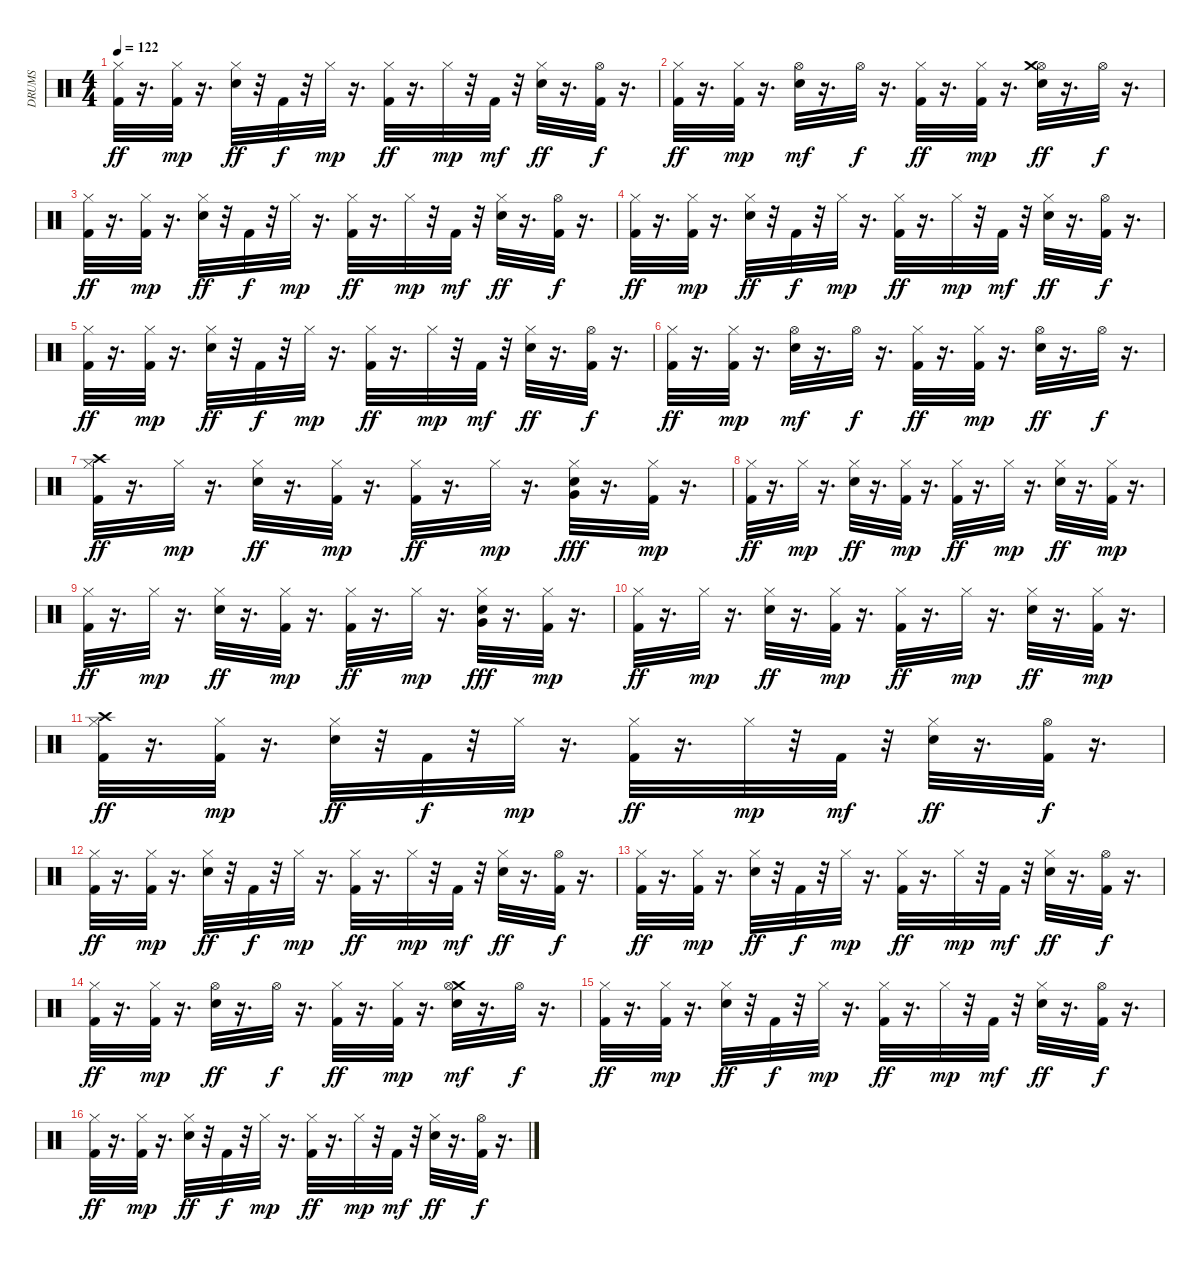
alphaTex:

\track ("DRUMS" "DRUMS") {instrument percussion}
\staff {score}
\articulation defaults
\ts (4 4)
\tempo 122
\clef neutral
\ks c
("Kick (hit) 2" "Hi-Hat (closed)").32{dy ff} r.16{d} ("Hi-Hat (closed)" "Kick (hit) 2").32{dy mp} r.16{d} ("Hi-Hat (closed)" "Snare (hit) 2").32{dy ff} r.32 "Kick (hit) 2".32{dy f} r.32 "Hi-Hat (closed)".32{dy mp} r.16{d} ("Kick (hit) 2" "Hi-Hat (closed)").32{dy ff} r.16{d} "Hi-Hat (closed)".32{dy mp} r.32 "Kick (hit) 2".32{dy mf} r.32 ("Snare (hit) 2" "Hi-Hat (closed)").32{dy ff} r.16{d} ("Hi-Hat (open)" "Kick (hit) 2").32{dy f} r.16{d} |
("Kick (hit) 2" "Hi-Hat (closed)").32{dy ff} r.16{d} ("Kick (hit) 2" "Hi-Hat (closed)").32{dy mp} r.16{d} ("Snare (hit) 2" "Hi-Hat (open)").32{dy mf} r.16{d} "Hi-Hat (open)".32{dy f} r.16{d} ("Kick (hit) 2" "Hi-Hat (closed)").32{dy ff} r.16{d} ("Hi-Hat (closed)" "Kick (hit) 2").32{dy mp} r.16{d} ("Hi-Hat (open)" "Snare (hit) 2" "Crash medium (hit)").32{dy ff} r.16{d} "Hi-Hat (open)".32{dy f} r.16{d} |
("Hi-Hat (closed)" "Kick (hit) 2").32{dy ff} r.16{d} ("Kick (hit) 2" "Hi-Hat (closed)").32{dy mp} r.16{d} ("Snare (hit) 2" "Hi-Hat (closed)").32{dy ff} r.32 "Kick (hit) 2".32{dy f} r.32 "Hi-Hat (closed)".32{dy mp} r.16{d} ("Hi-Hat (closed)" "Kick (hit) 2").32{dy ff} r.16{d} "Hi-Hat (closed)".32{dy mp} r.32 "Kick (hit) 2".32{dy mf} r.32 ("Hi-Hat (closed)" "Snare (hit) 2").32{dy ff} r.16{d} ("Kick (hit) 2" "Hi-Hat (open)").32{dy f} r.16{d} |
("Hi-Hat (closed)" "Kick (hit) 2").32{dy ff} r.16{d} ("Kick (hit) 2" "Hi-Hat (closed)").32{dy mp} r.16{d} ("Hi-Hat (closed)" "Snare (hit) 2").32{dy ff} r.32 "Kick (hit) 2".32{dy f} r.32 "Hi-Hat (closed)".32{dy mp} r.16{d} ("Hi-Hat (closed)" "Kick (hit) 2").32{dy ff} r.16{d} "Hi-Hat (closed)".32{dy mp} r.32 "Kick (hit) 2".32{dy mf} r.32 ("Snare (hit) 2" "Hi-Hat (closed)").32{dy ff} r.16{d} ("Hi-Hat (open)" "Kick (hit) 2").32{dy f} r.16{d} |
("Kick (hit) 2" "Hi-Hat (closed)").32{dy ff} r.16{d} ("Kick (hit) 2" "Hi-Hat (closed)").32{dy mp} r.16{d} ("Snare (hit) 2" "Hi-Hat (closed)").32{dy ff} r.32 "Kick (hit) 2".32{dy f} r.32 "Hi-Hat (closed)".32{dy mp} r.16{d} ("Kick (hit) 2" "Hi-Hat (closed)").32{dy ff} r.16{d} "Hi-Hat (closed)".32{dy mp} r.32 "Kick (hit) 2".32{dy mf} r.32 ("Snare (hit) 2" "Hi-Hat (closed)").32{dy ff} r.16{d} ("Hi-Hat (open)" "Kick (hit) 2").32{dy f} r.16{d} |
("Kick (hit) 2" "Hi-Hat (closed)").32{dy ff} r.16{d} ("Kick (hit) 2" "Hi-Hat (closed)").32{dy mp} r.16{d} ("Snare (hit) 2" "Hi-Hat (open)").32{dy mf} r.16{d} "Hi-Hat (open)".32{dy f} r.16{d} ("Kick (hit) 2" "Hi-Hat (closed)").32{dy ff} r.16{d} ("Hi-Hat (closed)" "Kick (hit) 2").32{dy mp} r.16{d} ("Hi-Hat (open)" "Snare (hit) 2").32{dy ff} r.16{d} "Hi-Hat (open)".32{dy f} r.16{d} |
("Kick (hit) 2" "Crash high (hit)" "Hi-Hat (closed)").32{dy ff} r.16{d} "Hi-Hat (closed)".32{dy mp} r.16{d} ("Snare (hit) 2" "Hi-Hat (closed)").32{dy ff} r.16{d} ("Hi-Hat (closed)" "Kick (hit) 2").32{dy mp} r.16{d} ("Kick (hit) 2" "Hi-Hat (closed)").32{dy ff} r.16{d} "Hi-Hat (closed)".32{dy mp} r.16{d} ("Snare (hit) 2" "Hi-Hat (closed)" "Very Low Tom (hit)").32{dy fff} r.16{d} ("Kick (hit) 2" "Hi-Hat (closed)").32{dy mp} r.16{d} |
("Kick (hit) 2" "Hi-Hat (closed)").32{dy ff} r.16{d} "Hi-Hat (closed)".32{dy mp} r.16{d} ("Hi-Hat (closed)" "Snare (hit) 2").32{dy ff} r.16{d} ("Kick (hit) 2" "Hi-Hat (closed)").32{dy mp} r.16{d} ("Kick (hit) 2" "Hi-Hat (closed)").32{dy ff} r.16{d} "Hi-Hat (closed)".32{dy mp} r.16{d} ("Snare (hit) 2" "Hi-Hat (closed)").32{dy ff} r.16{d} ("Hi-Hat (closed)" "Kick (hit) 2").32{dy mp} r.16{d} |
("Kick (hit) 2" "Hi-Hat (closed)").32{dy ff} r.16{d} "Hi-Hat (closed)".32{dy mp} r.16{d} ("Snare (hit) 2" "Hi-Hat (closed)").32{dy ff} r.16{d} ("Kick (hit) 2" "Hi-Hat (closed)").32{dy mp} r.16{d} ("Kick (hit) 2" "Hi-Hat (closed)").32{dy ff} r.16{d} "Hi-Hat (closed)".32{dy mp} r.16{d} ("Snare (hit) 2" "Hi-Hat (closed)" "Very Low Tom (hit)").32{dy fff} r.16{d} ("Hi-Hat (closed)" "Kick (hit) 2").32{dy mp} r.16{d} |
("Kick (hit) 2" "Hi-Hat (closed)").32{dy ff} r.16{d} "Hi-Hat (closed)".32{dy mp} r.16{d} ("Hi-Hat (closed)" "Snare (hit) 2").32{dy ff} r.16{d} ("Hi-Hat (closed)" "Kick (hit) 2").32{dy mp} r.16{d} ("Hi-Hat (closed)" "Kick (hit) 2").32{dy ff} r.16{d} "Hi-Hat (closed)".32{dy mp} r.16{d} ("Snare (hit) 2" "Hi-Hat (closed)").32{dy ff} r.16{d} ("Kick (hit) 2" "Hi-Hat (closed)").32{dy mp} r.16{d} |
("Crash high (hit)" "Hi-Hat (closed)" "Kick (hit) 2").32{dy ff} r.16{d} ("Hi-Hat (closed)" "Kick (hit) 2").32{dy mp} r.16{d} ("Hi-Hat (closed)" "Snare (hit) 2").32{dy ff} r.32 "Kick (hit) 2".32{dy f} r.32 "Hi-Hat (closed)".32{dy mp} r.16{d} ("Kick (hit) 2" "Hi-Hat (closed)").32{dy ff} r.16{d} "Hi-Hat (closed)".32{dy mp} r.32 "Kick (hit) 2".32{dy mf} r.32 ("Snare (hit) 2" "Hi-Hat (closed)").32{dy ff} r.16{d} ("Kick (hit) 2" "Hi-Hat (open)").32{dy f} r.16{d} |
("Hi-Hat (closed)" "Kick (hit) 2").32{dy ff} r.16{d} ("Kick (hit) 2" "Hi-Hat (closed)").32{dy mp} r.16{d} ("Snare (hit) 2" "Hi-Hat (closed)").32{dy ff} r.32 "Kick (hit) 2".32{dy f} r.32 "Hi-Hat (closed)".32{dy mp} r.16{d} ("Kick (hit) 2" "Hi-Hat (closed)").32{dy ff} r.16{d} "Hi-Hat (closed)".32{dy mp} r.32 "Kick (hit) 2".32{dy mf} r.32 ("Snare (hit) 2" "Hi-Hat (closed)").32{dy ff} r.16{d} ("Kick (hit) 2" "Hi-Hat (open)").32{dy f} r.16{d} |
("Hi-Hat (closed)" "Kick (hit) 2").32{dy ff} r.16{d} ("Kick (hit) 2" "Hi-Hat (closed)").32{dy mp} r.16{d} ("Snare (hit) 2" "Hi-Hat (closed)").32{dy ff} r.32 "Kick (hit) 2".32{dy f} r.32 "Hi-Hat (closed)".32{dy mp} r.16{d} ("Hi-Hat (closed)" "Kick (hit) 2").32{dy ff} r.16{d} "Hi-Hat (closed)".32{dy mp} r.32 "Kick (hit) 2".32{dy mf} r.32 ("Hi-Hat (closed)" "Snare (hit) 2").32{dy ff} r.16{d} ("Hi-Hat (open)" "Kick (hit) 2").32{dy f} r.16{d} |
("Kick (hit) 2" "Hi-Hat (closed)").32{dy ff} r.16{d} ("Hi-Hat (closed)" "Kick (hit) 2").32{dy mp} r.16{d} ("Hi-Hat (open)" "Snare (hit) 2").32{dy ff} r.16{d} "Hi-Hat (open)".32{dy f} r.16{d} ("Hi-Hat (closed)" "Kick (hit) 2").32{dy ff} r.16{d} ("Kick (hit) 2" "Hi-Hat (closed)").32{dy mp} r.16{d} ("Crash medium (hit)" "Snare (hit) 2" "Hi-Hat (open)").32{dy mf} r.16{d} "Hi-Hat (open)".32{dy f} r.16{d} |
("Kick (hit) 2" "Hi-Hat (closed)").32{dy ff} r.16{d} ("Kick (hit) 2" "Hi-Hat (closed)").32{dy mp} r.16{d} ("Snare (hit) 2" "Hi-Hat (closed)").32{dy ff} r.32 "Kick (hit) 2".32{dy f} r.32 "Hi-Hat (closed)".32{dy mp} r.16{d} ("Kick (hit) 2" "Hi-Hat (closed)").32{dy ff} r.16{d} "Hi-Hat (closed)".32{dy mp} r.32 "Kick (hit) 2".32{dy mf} r.32 ("Hi-Hat (closed)" "Snare (hit) 2").32{dy ff} r.16{d} ("Hi-Hat (open)" "Kick (hit) 2").32{dy f} r.16{d} |
("Kick (hit) 2" "Hi-Hat (closed)").32{dy ff} r.16{d} ("Kick (hit) 2" "Hi-Hat (closed)").32{dy mp} r.16{d} ("Snare (hit) 2" "Hi-Hat (closed)").32{dy ff} r.32 "Kick (hit) 2".32{dy f} r.32 "Hi-Hat (closed)".32{dy mp} r.16{d} ("Hi-Hat (closed)" "Kick (hit) 2").32{dy ff} r.16{d} "Hi-Hat (closed)".32{dy mp} r.32 "Kick (hit) 2".32{dy mf} r.32 ("Hi-Hat (closed)" "Snare (hit) 2").32{dy ff} r.16{d} ("Hi-Hat (open)" "Kick (hit) 2").32{dy f} r.16{d}
